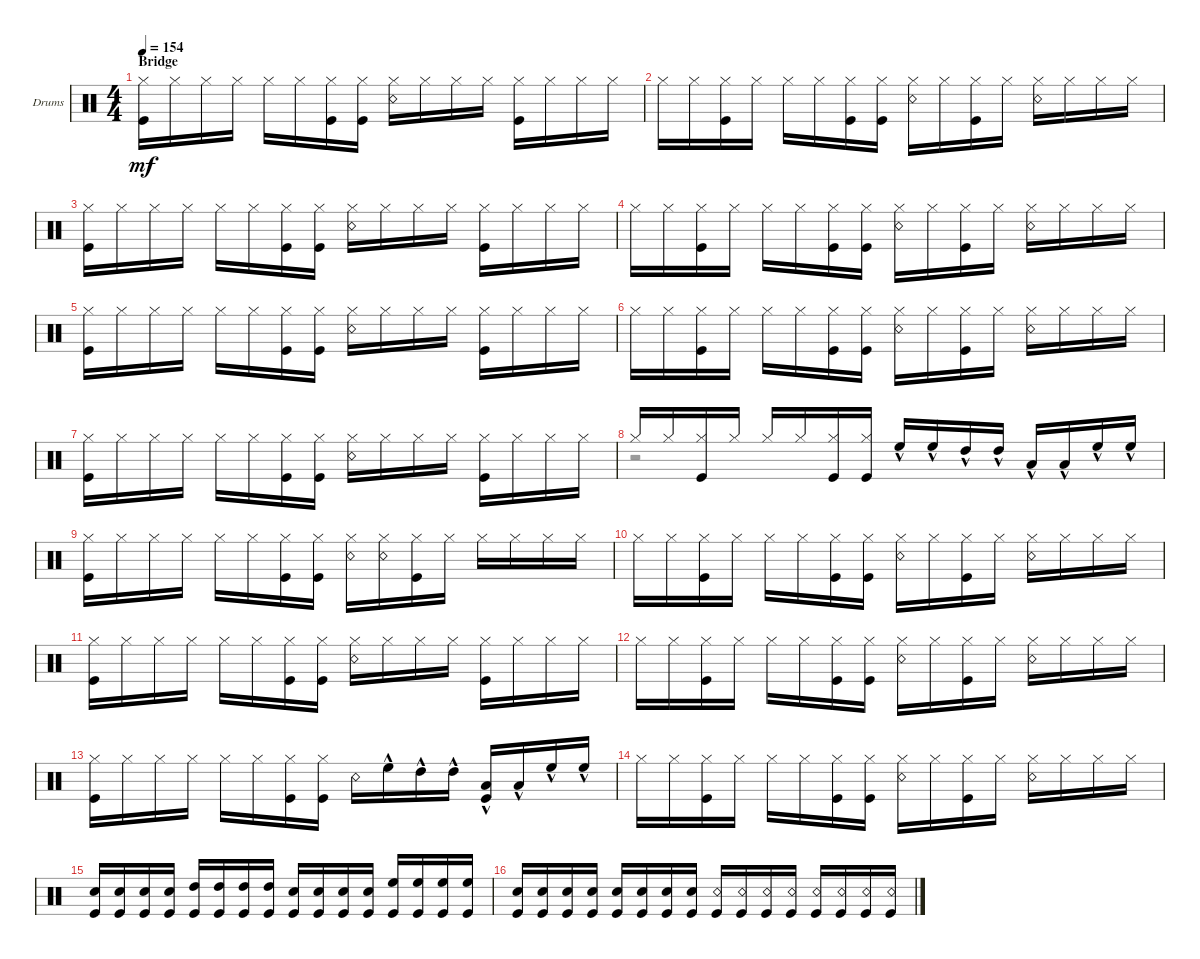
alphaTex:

\defaultSystemsLayout 4
\bracketExtendMode groupsimilarinstruments
\firstSystemTrackNameOrientation horizontal
\otherSystemsTrackNameOrientation horizontal
\track ("Drumkit" "Drums") {instrument percussion}
\staff {score}
\articulation defaults
\voice
\ts (4 4)
\section ("" "Bridge")
\tempo 154
\clef neutral
\ks c
("Hi-Hat (closed)" "Kick (hit)").16{dy mf} "Hi-Hat (closed)".16 "Hi-Hat (closed)".16 "Hi-Hat (closed)".16 "Hi-Hat (closed)".16 "Hi-Hat (closed)".16 ("Hi-Hat (closed)" "Kick (hit)").16 ("Hi-Hat (closed)" "Kick (hit)").16 ("Hi-Hat (closed)" "Snare (rim shot)").16 "Hi-Hat (closed)".16 "Hi-Hat (closed)".16 "Hi-Hat (closed)".16 ("Hi-Hat (closed)" "Kick (hit)").16 "Hi-Hat (closed)".16 "Hi-Hat (closed)".16 "Hi-Hat (closed)".16 |
"Hi-Hat (closed)".16 "Hi-Hat (closed)".16 ("Hi-Hat (closed)" "Kick (hit)").16 "Hi-Hat (closed)".16 "Hi-Hat (closed)".16 "Hi-Hat (closed)".16 ("Hi-Hat (closed)" "Kick (hit)").16 ("Hi-Hat (closed)" "Kick (hit)").16 ("Hi-Hat (closed)" "Snare (rim shot)").16 "Hi-Hat (closed)".16 ("Hi-Hat (closed)" "Kick (hit)").16 "Hi-Hat (closed)".16 ("Hi-Hat (closed)" "Snare (rim shot)").16 "Hi-Hat (closed)".16 "Hi-Hat (closed)".16 "Hi-Hat (closed)".16 |
("Hi-Hat (closed)" "Kick (hit)").16 "Hi-Hat (closed)".16 "Hi-Hat (closed)".16 "Hi-Hat (closed)".16 "Hi-Hat (closed)".16 "Hi-Hat (closed)".16 ("Hi-Hat (closed)" "Kick (hit)").16 ("Hi-Hat (closed)" "Kick (hit)").16 ("Hi-Hat (closed)" "Snare (rim shot)").16 "Hi-Hat (closed)".16 "Hi-Hat (closed)".16 "Hi-Hat (closed)".16 ("Hi-Hat (closed)" "Kick (hit)").16 "Hi-Hat (closed)".16 "Hi-Hat (closed)".16 "Hi-Hat (closed)".16 |
"Hi-Hat (closed)".16 "Hi-Hat (closed)".16 ("Hi-Hat (closed)" "Kick (hit)").16 "Hi-Hat (closed)".16 "Hi-Hat (closed)".16 "Hi-Hat (closed)".16 ("Hi-Hat (closed)" "Kick (hit)").16 ("Hi-Hat (closed)" "Kick (hit)").16 ("Hi-Hat (closed)" "Snare (rim shot)").16 "Hi-Hat (closed)".16 ("Hi-Hat (closed)" "Kick (hit)").16 "Hi-Hat (closed)".16 ("Hi-Hat (closed)" "Snare (rim shot)").16 "Hi-Hat (closed)".16 "Hi-Hat (closed)".16 "Hi-Hat (closed)".16 |
("Hi-Hat (closed)" "Kick (hit)").16 "Hi-Hat (closed)".16 "Hi-Hat (closed)".16 "Hi-Hat (closed)".16 "Hi-Hat (closed)".16 "Hi-Hat (closed)".16 ("Hi-Hat (closed)" "Kick (hit)").16 ("Hi-Hat (closed)" "Kick (hit)").16 ("Hi-Hat (closed)" "Snare (rim shot)").16 "Hi-Hat (closed)".16 "Hi-Hat (closed)".16 "Hi-Hat (closed)".16 ("Hi-Hat (closed)" "Kick (hit)").16 "Hi-Hat (closed)".16 "Hi-Hat (closed)".16 "Hi-Hat (closed)".16 |
"Hi-Hat (closed)".16 "Hi-Hat (closed)".16 ("Hi-Hat (closed)" "Kick (hit)").16 "Hi-Hat (closed)".16 "Hi-Hat (closed)".16 "Hi-Hat (closed)".16 ("Hi-Hat (closed)" "Kick (hit)").16 ("Hi-Hat (closed)" "Kick (hit)").16 ("Hi-Hat (closed)" "Snare (rim shot)").16 "Hi-Hat (closed)".16 ("Hi-Hat (closed)" "Kick (hit)").16 "Hi-Hat (closed)".16 ("Hi-Hat (closed)" "Snare (rim shot)").16 "Hi-Hat (closed)".16 "Hi-Hat (closed)".16 "Hi-Hat (closed)".16 |
("Hi-Hat (closed)" "Kick (hit)").16 "Hi-Hat (closed)".16 "Hi-Hat (closed)".16 "Hi-Hat (closed)".16 "Hi-Hat (closed)".16 "Hi-Hat (closed)".16 ("Hi-Hat (closed)" "Kick (hit)").16 ("Hi-Hat (closed)" "Kick (hit)").16 ("Hi-Hat (closed)" "Snare (rim shot)").16 "Hi-Hat (closed)".16 "Hi-Hat (closed)".16 "Hi-Hat (closed)".16 ("Hi-Hat (closed)" "Kick (hit)").16 "Hi-Hat (closed)".16 "Hi-Hat (closed)".16 "Hi-Hat (closed)".16 |
"Hi-Hat (closed)".16 "Hi-Hat (closed)".16 ("Hi-Hat (closed)" "Kick (hit)").16 "Hi-Hat (closed)".16 "Hi-Hat (closed)".16 "Hi-Hat (closed)".16 ("Hi-Hat (closed)" "Kick (hit)").16 ("Hi-Hat (closed)" "Kick (hit)").16 "High Floor Tom (hit)"{hac}.16 "High Floor Tom (hit)"{hac}.16 "High Tom (hit)"{hac}.16 "High Tom (hit)"{hac}.16 "Low Tom (hit)"{hac}.16 "Low Tom (hit)"{hac}.16 "High Floor Tom (hit)"{hac}.16 "High Floor Tom (hit)"{hac}.16 |
("Hi-Hat (closed)" "Kick (hit)").16 "Hi-Hat (closed)".16 "Hi-Hat (closed)".16 "Hi-Hat (closed)".16 "Hi-Hat (closed)".16 "Hi-Hat (closed)".16 ("Hi-Hat (closed)" "Kick (hit)").16 ("Hi-Hat (closed)" "Kick (hit)").16 ("Hi-Hat (closed)" "Snare (rim shot)").16 ("Hi-Hat (closed)" "Snare (rim shot)").16 ("Hi-Hat (closed)" "Kick (hit)").16 "Hi-Hat (closed)".16 "Hi-Hat (closed)".16 "Hi-Hat (closed)".16 "Hi-Hat (closed)".16 "Hi-Hat (closed)".16 |
"Hi-Hat (closed)".16 "Hi-Hat (closed)".16 ("Hi-Hat (closed)" "Kick (hit)").16 "Hi-Hat (closed)".16 "Hi-Hat (closed)".16 "Hi-Hat (closed)".16 ("Hi-Hat (closed)" "Kick (hit)").16 ("Hi-Hat (closed)" "Kick (hit)").16 ("Hi-Hat (closed)" "Snare (rim shot)").16 "Hi-Hat (closed)".16 ("Hi-Hat (closed)" "Kick (hit)").16 "Hi-Hat (closed)".16 ("Hi-Hat (closed)" "Snare (rim shot)").16 "Hi-Hat (closed)".16 "Hi-Hat (closed)".16 "Hi-Hat (closed)".16 |
("Hi-Hat (closed)" "Kick (hit)").16 "Hi-Hat (closed)".16 "Hi-Hat (closed)".16 "Hi-Hat (closed)".16 "Hi-Hat (closed)".16 "Hi-Hat (closed)".16 ("Hi-Hat (closed)" "Kick (hit)").16 ("Hi-Hat (closed)" "Kick (hit)").16 ("Hi-Hat (closed)" "Snare (rim shot)").16 "Hi-Hat (closed)".16 "Hi-Hat (closed)".16 "Hi-Hat (closed)".16 ("Hi-Hat (closed)" "Kick (hit)").16 "Hi-Hat (closed)".16 "Hi-Hat (closed)".16 "Hi-Hat (closed)".16 |
"Hi-Hat (closed)".16 "Hi-Hat (closed)".16 ("Hi-Hat (closed)" "Kick (hit)").16 "Hi-Hat (closed)".16 "Hi-Hat (closed)".16 "Hi-Hat (closed)".16 ("Hi-Hat (closed)" "Kick (hit)").16 ("Hi-Hat (closed)" "Kick (hit)").16 ("Hi-Hat (closed)" "Snare (rim shot)").16 "Hi-Hat (closed)".16 ("Hi-Hat (closed)" "Kick (hit)").16 "Hi-Hat (closed)".16 ("Hi-Hat (closed)" "Snare (rim shot)").16 "Hi-Hat (closed)".16 "Hi-Hat (closed)".16 "Hi-Hat (closed)".16 |
("Hi-Hat (closed)" "Kick (hit)").16 "Hi-Hat (closed)".16 "Hi-Hat (closed)".16 "Hi-Hat (closed)".16 "Hi-Hat (closed)".16 "Hi-Hat (closed)".16 ("Hi-Hat (closed)" "Kick (hit)").16 ("Hi-Hat (closed)" "Kick (hit)").16 "Snare (rim shot)".16 "High Floor Tom (hit)"{hac}.16 "High Tom (hit)"{hac}.16 "High Tom (hit)"{hac}.16 ("Low Tom (hit)"{hac} "Kick (hit)").16 "Low Tom (hit)"{hac}.16 "High Floor Tom (hit)"{hac}.16 "High Floor Tom (hit)"{hac}.16 |
"Hi-Hat (closed)".16 "Hi-Hat (closed)".16 ("Hi-Hat (closed)" "Kick (hit)").16 "Hi-Hat (closed)".16 "Hi-Hat (closed)".16 "Hi-Hat (closed)".16 ("Hi-Hat (closed)" "Kick (hit)").16 ("Hi-Hat (closed)" "Kick (hit)").16 ("Hi-Hat (closed)" "Snare (rim shot)").16 "Hi-Hat (closed)".16 ("Hi-Hat (closed)" "Kick (hit)").16 "Hi-Hat (closed)".16 ("Hi-Hat (closed)" "Snare (rim shot)").16 "Hi-Hat (closed)".16 "Hi-Hat (closed)".16 "Hi-Hat (closed)".16 |
("Snare (hit) 2" "Kick (hit)").16 ("Snare (hit) 2" "Kick (hit)").16 ("Snare (hit) 2" "Kick (hit)").16 ("Snare (hit) 2" "Kick (hit)").16 ("High Tom (hit)" "Kick (hit)").16 ("High Tom (hit)" "Kick (hit)").16 ("High Tom (hit)" "Kick (hit)").16 ("High Tom (hit)" "Kick (hit)").16 ("Snare (hit) 2" "Kick (hit)").16 ("Snare (hit) 2" "Kick (hit)").16 ("Snare (hit) 2" "Kick (hit)").16 ("Snare (hit) 2" "Kick (hit)").16 ("High Floor Tom (hit)" "Kick (hit)").16 ("High Floor Tom (hit)" "Kick (hit)").16 ("High Floor Tom (hit)" "Kick (hit)").16 ("High Floor Tom (hit)" "Kick (hit)").16 |
("Snare (hit) 2" "Kick (hit)").16 ("Snare (hit) 2" "Kick (hit)").16 ("Snare (hit) 2" "Kick (hit)").16 ("Snare (hit) 2" "Kick (hit)").16 ("Snare (hit) 2" "Kick (hit)").16 ("Snare (hit) 2" "Kick (hit)").16 ("Snare (hit) 2" "Kick (hit)").16 ("Snare (hit) 2" "Kick (hit)").16 ("Snare (rim shot)" "Kick (hit)").16 ("Snare (rim shot)" "Kick (hit)").16 ("Snare (rim shot)" "Kick (hit)").16 ("Snare (rim shot)" "Kick (hit)").16 ("Snare (rim shot)" "Kick (hit)").16 ("Snare (rim shot)" "Kick (hit)").16 ("Snare (rim shot)" "Kick (hit)").16 ("Snare (rim shot)" "Kick (hit)").16
\voice
\clef neutral
\ottava regular
\simile none
\ks c
|
|
|
|
|
|
|
r.2{dy mf} |
|
|
|
|
|
|
|
